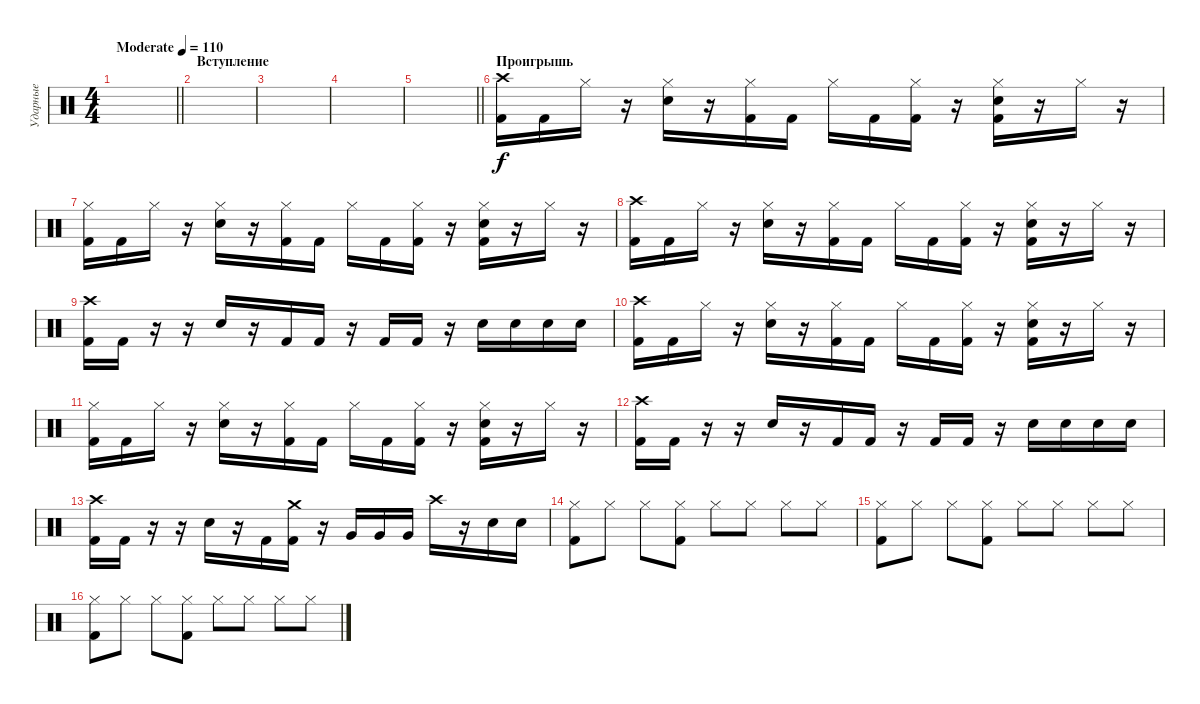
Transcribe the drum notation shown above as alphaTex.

\track ("Ударные" "Ударные") {instrument percussion}
\staff {score}
\articulation defaults
\ts (4 4)
\tempo (110 "Moderate")
\clef neutral
\barLineRight lightlight
\ks c
|
\section ("" "Вступление")
|
|
|
\barLineRight lightlight
|
\section ("" "Проигрышь")
("Crash high (hit)" "Kick (hit) 2").16 "Kick (hit) 2".16 "Hi-Hat (closed)".16 r.16 ("Hi-Hat (closed)" "Electric Snare (hit)").16 r.16 ("Hi-Hat (closed)" "Kick (hit) 2").16 "Kick (hit) 2".16 "Hi-Hat (closed)".16 "Kick (hit) 2".16 ("Hi-Hat (closed)" "Kick (hit) 2").16 r.16 ("Hi-Hat (closed)" "Electric Snare (hit)" "Kick (hit) 2").16 r.16 "Hi-Hat (closed)".16 r.16 |
("Hi-Hat (closed)" "Kick (hit) 2").16 "Kick (hit) 2".16 "Hi-Hat (closed)".16 r.16 ("Hi-Hat (closed)" "Electric Snare (hit)").16 r.16 ("Hi-Hat (closed)" "Kick (hit) 2").16 "Kick (hit) 2".16 "Hi-Hat (closed)".16 "Kick (hit) 2".16 ("Hi-Hat (closed)" "Kick (hit) 2").16 r.16 ("Hi-Hat (closed)" "Electric Snare (hit)" "Kick (hit) 2").16 r.16 "Hi-Hat (closed)".16 r.16 |
("Crash high (hit)" "Kick (hit) 2").16 "Kick (hit) 2".16 "Hi-Hat (closed)".16 r.16 ("Hi-Hat (closed)" "Electric Snare (hit)").16 r.16 ("Hi-Hat (closed)" "Kick (hit) 2").16 "Kick (hit) 2".16 "Hi-Hat (closed)".16 "Kick (hit) 2".16 ("Hi-Hat (closed)" "Kick (hit) 2").16 r.16 ("Hi-Hat (closed)" "Electric Snare (hit)" "Kick (hit) 2").16 r.16 "Hi-Hat (closed)".16 r.16 |
("Crash high (hit)" "Kick (hit) 2").16 "Kick (hit) 2".16 r.16 r.16 "Electric Snare (hit)".16 r.16 "Kick (hit) 2".16 "Kick (hit) 2".16 r.16 "Kick (hit) 2".16 "Kick (hit) 2".16 r.16 "Electric Snare (hit)".16 "Electric Snare (hit)".16 "Electric Snare (hit)".16 "Electric Snare (hit)".16 |
("Crash high (hit)" "Kick (hit) 2").16 "Kick (hit) 2".16 "Hi-Hat (closed)".16 r.16 ("Hi-Hat (closed)" "Electric Snare (hit)").16 r.16 ("Hi-Hat (closed)" "Kick (hit) 2").16 "Kick (hit) 2".16 "Hi-Hat (closed)".16 "Kick (hit) 2".16 ("Hi-Hat (closed)" "Kick (hit) 2").16 r.16 ("Hi-Hat (closed)" "Electric Snare (hit)" "Kick (hit) 2").16 r.16 "Hi-Hat (closed)".16 r.16 |
("Hi-Hat (closed)" "Kick (hit) 2").16 "Kick (hit) 2".16 "Hi-Hat (closed)".16 r.16 ("Hi-Hat (closed)" "Electric Snare (hit)").16 r.16 ("Hi-Hat (closed)" "Kick (hit) 2").16 "Kick (hit) 2".16 "Hi-Hat (closed)".16 "Kick (hit) 2".16 ("Hi-Hat (closed)" "Kick (hit) 2").16 r.16 ("Hi-Hat (closed)" "Electric Snare (hit)" "Kick (hit) 2").16 r.16 "Hi-Hat (closed)".16 r.16 |
("Crash high (hit)" "Kick (hit) 2").16 "Kick (hit) 2".16 r.16 r.16 "Electric Snare (hit)".16 r.16 "Kick (hit) 2".16 "Kick (hit) 2".16 r.16 "Kick (hit) 2".16 "Kick (hit) 2".16 r.16 "Electric Snare (hit)".16 "Electric Snare (hit)".16 "Electric Snare (hit)".16 "Electric Snare (hit)".16 |
("Crash high (hit)" "Kick (hit) 2").16 "Kick (hit) 2".16 r.16 r.16 "Electric Snare (hit)".16 r.16 "Kick (hit) 2".16 ("Crash medium (hit)" "Kick (hit) 2").16 r.16 "Very Low Tom (hit)".16 "Very Low Tom (hit)".16 "Very Low Tom (hit)".16 "Crash high (hit)".16 r.16 "Electric Snare (hit)".16 "Electric Snare (hit)".16 |
("Hi-Hat (closed)" "Kick (hit) 2").8 "Hi-Hat (closed)".8 "Hi-Hat (closed)".8 ("Hi-Hat (closed)" "Kick (hit) 2").8 "Hi-Hat (closed)".8 "Hi-Hat (closed)".8 "Hi-Hat (closed)".8 "Hi-Hat (closed)".8 |
("Hi-Hat (closed)" "Kick (hit) 2").8 "Hi-Hat (closed)".8 "Hi-Hat (closed)".8 ("Hi-Hat (closed)" "Kick (hit) 2").8 "Hi-Hat (closed)".8 "Hi-Hat (closed)".8 "Hi-Hat (closed)".8 "Hi-Hat (closed)".8 |
("Hi-Hat (closed)" "Kick (hit) 2").8 "Hi-Hat (closed)".8 "Hi-Hat (closed)".8 ("Hi-Hat (closed)" "Kick (hit) 2").8 "Hi-Hat (closed)".8 "Hi-Hat (closed)".8 "Hi-Hat (closed)".8 "Hi-Hat (closed)".8
